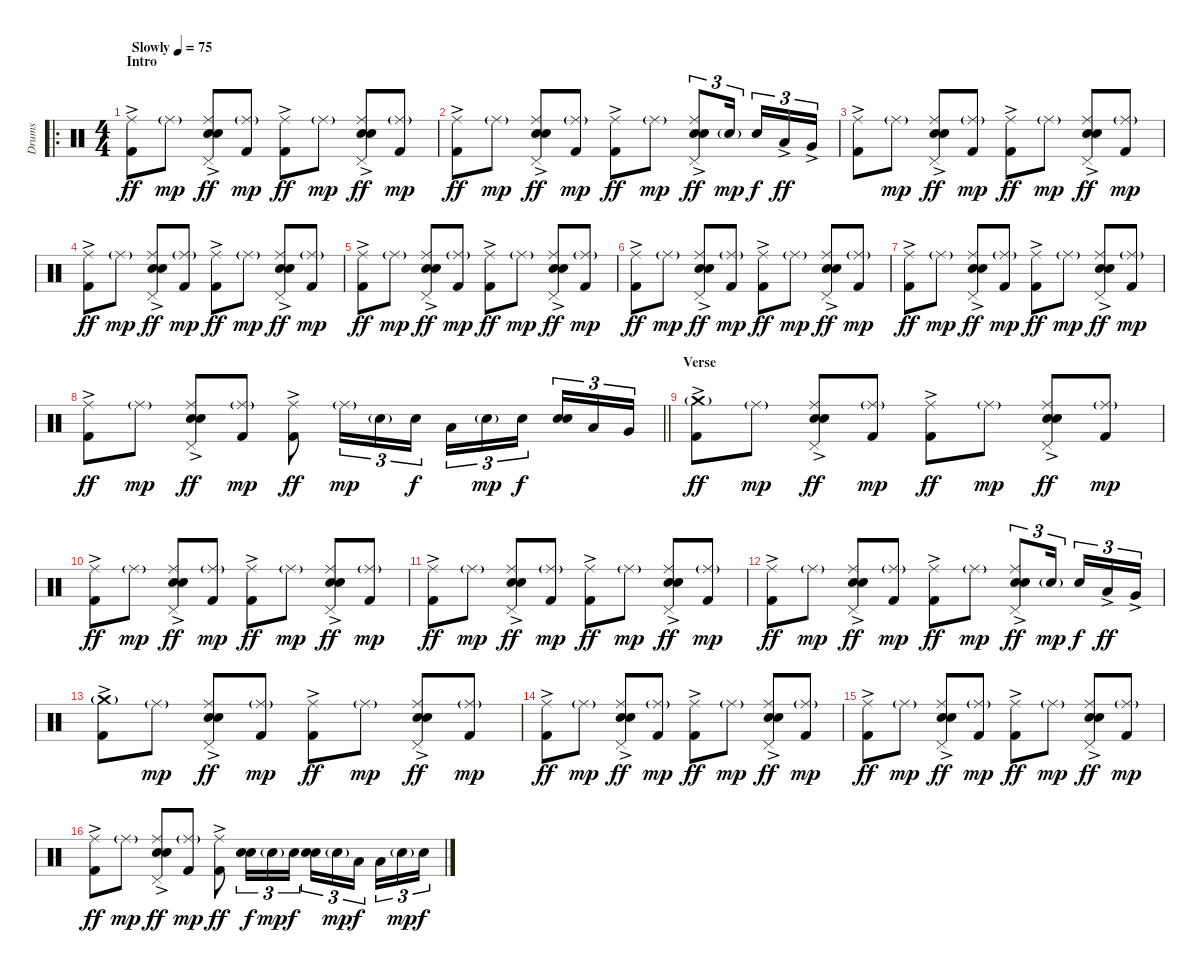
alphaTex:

\track ("Drums" "Drums") {instrument percussion}
\staff {score}
\articulation defaults
\ro
\ts (4 4)
\section ("" "Intro")
\tempo (75 "Slowly")
\clef neutral
\ks c
("Ride (middle)" "Kick (hit) 2"{ac}).8{dy ff} "Ride (middle)"{g}.8{dy mp} ("Ride (middle)" "Electric Snare (hit)"{ac} "Snare (hit) 2" "Pedal Hi-Hat (hit)").8{dy ff} ("Ride (middle)"{g} "Kick (hit) 2").8{dy mp} ("Ride (middle)" "Kick (hit) 2"{ac}).8{dy ff} "Ride (middle)"{g}.8{dy mp} ("Ride (middle)" "Electric Snare (hit)"{ac} "Snare (hit) 2" "Pedal Hi-Hat (hit)").8{dy ff} ("Ride (middle)"{g} "Kick (hit) 2").8{dy mp} |
("Ride (middle)" "Kick (hit) 2"{ac}).8{dy ff} "Ride (middle)"{g}.8{dy mp} ("Ride (middle)" "Electric Snare (hit)"{ac} "Snare (hit) 2" "Pedal Hi-Hat (hit)").8{dy ff} ("Ride (middle)"{g} "Kick (hit) 2").8{dy mp} ("Ride (middle)" "Kick (hit) 2"{ac}).8{dy ff} "Ride (middle)"{g}.8{dy mp} ("Ride (middle)" "Electric Snare (hit)"{ac} "Snare (hit) 2" "Pedal Hi-Hat (hit)").8{tu (3 2) dy ff} "Snare (hit) 2"{g}.16{tu (3 2) dy mp beam splitsecondary} "Snare (hit) 2".16{tu (3 2) dy f} "Low Tom (hit)"{ac}.16{tu (3 2) dy ff} "Very Low Tom (hit)"{ac}.16{tu (3 2)} |
("Ride (middle)" "Kick (hit) 2"{ac}).8 "Ride (middle)"{g}.8{dy mp} ("Ride (middle)" "Electric Snare (hit)"{ac} "Snare (hit) 2" "Pedal Hi-Hat (hit)").8{dy ff} ("Ride (middle)"{g} "Kick (hit) 2").8{dy mp} ("Ride (middle)" "Kick (hit) 2"{ac}).8{dy ff} "Ride (middle)"{g}.8{dy mp} ("Ride (middle)" "Electric Snare (hit)"{ac} "Snare (hit) 2" "Pedal Hi-Hat (hit)").8{dy ff} ("Ride (middle)"{g} "Kick (hit) 2").8{dy mp} |
("Ride (middle)" "Kick (hit) 2"{ac}).8{dy ff} "Ride (middle)"{g}.8{dy mp} ("Ride (middle)" "Electric Snare (hit)"{ac} "Snare (hit) 2" "Pedal Hi-Hat (hit)").8{dy ff} ("Ride (middle)"{g} "Kick (hit) 2").8{dy mp} ("Ride (middle)" "Kick (hit) 2"{ac}).8{dy ff} "Ride (middle)"{g}.8{dy mp} ("Ride (middle)" "Electric Snare (hit)"{ac} "Snare (hit) 2" "Pedal Hi-Hat (hit)").8{dy ff} ("Ride (middle)"{g} "Kick (hit) 2").8{dy mp} |
("Ride (middle)" "Kick (hit) 2"{ac}).8{dy ff} "Ride (middle)"{g}.8{dy mp} ("Ride (middle)" "Electric Snare (hit)"{ac} "Snare (hit) 2" "Pedal Hi-Hat (hit)").8{dy ff} ("Ride (middle)"{g} "Kick (hit) 2").8{dy mp} ("Ride (middle)" "Kick (hit) 2"{ac}).8{dy ff} "Ride (middle)"{g}.8{dy mp} ("Ride (middle)" "Electric Snare (hit)"{ac} "Snare (hit) 2" "Pedal Hi-Hat (hit)").8{dy ff} ("Ride (middle)"{g} "Kick (hit) 2").8{dy mp} |
("Ride (middle)" "Kick (hit) 2"{ac}).8{dy ff} "Ride (middle)"{g}.8{dy mp} ("Ride (middle)" "Electric Snare (hit)"{ac} "Snare (hit) 2" "Pedal Hi-Hat (hit)").8{dy ff} ("Ride (middle)"{g} "Kick (hit) 2").8{dy mp} ("Ride (middle)" "Kick (hit) 2"{ac}).8{dy ff} "Ride (middle)"{g}.8{dy mp} ("Ride (middle)" "Electric Snare (hit)"{ac} "Snare (hit) 2" "Pedal Hi-Hat (hit)").8{dy ff} ("Ride (middle)"{g} "Kick (hit) 2").8{dy mp} |
("Ride (middle)" "Kick (hit) 2"{ac}).8{dy ff} "Ride (middle)"{g}.8{dy mp} ("Ride (middle)" "Electric Snare (hit)"{ac} "Snare (hit) 2" "Pedal Hi-Hat (hit)").8{dy ff} ("Ride (middle)"{g} "Kick (hit) 2").8{dy mp} ("Ride (middle)" "Kick (hit) 2"{ac}).8{dy ff} "Ride (middle)"{g}.8{dy mp} ("Ride (middle)" "Electric Snare (hit)"{ac} "Snare (hit) 2" "Pedal Hi-Hat (hit)").8{dy ff} ("Ride (middle)"{g} "Kick (hit) 2").8{dy mp} |
\barLineRight lightlight
("Ride (middle)" "Kick (hit) 2"{ac}).8{dy ff} "Ride (middle)"{g}.8{dy mp} ("Ride (middle)" "Electric Snare (hit)"{ac} "Snare (hit) 2" "Pedal Hi-Hat (hit)").8{dy ff} ("Ride (middle)"{g} "Kick (hit) 2").8{dy mp} ("Ride (middle)" "Kick (hit) 2"{ac}).8{dy ff} "Ride (middle)"{g}.16{tu (3 2) dy mp} "Snare (hit) 2"{g}.16{tu (3 2)} "Snare (hit) 2".16{tu (3 2) dy f} "Low Tom (hit)".16{tu (3 2)} "Snare (hit) 2"{g}.16{tu (3 2) dy mp} "Snare (hit) 2".16{tu (3 2) dy f beam splitsecondary} ("Electric Snare (hit)" "Snare (hit) 2").16{tu (3 2)} "Low Tom (hit)".16{tu (3 2)} "Very Low Tom (hit)".16{tu (3 2)} |
\section ("" "Verse")
("Crash medium (hit)"{g} "Kick (hit) 2"{ac}).8{dy ff} "Ride (middle)"{g}.8{dy mp} ("Ride (middle)" "Electric Snare (hit)"{ac} "Snare (hit) 2" "Pedal Hi-Hat (hit)").8{dy ff} ("Ride (middle)"{g} "Kick (hit) 2").8{dy mp} ("Ride (middle)" "Kick (hit) 2"{ac}).8{dy ff} "Ride (middle)"{g}.8{dy mp} ("Ride (middle)" "Electric Snare (hit)"{ac} "Snare (hit) 2" "Pedal Hi-Hat (hit)").8{dy ff} ("Ride (middle)"{g} "Kick (hit) 2").8{dy mp} |
("Ride (middle)" "Kick (hit) 2"{ac}).8{dy ff} "Ride (middle)"{g}.8{dy mp} ("Ride (middle)" "Electric Snare (hit)"{ac} "Snare (hit) 2" "Pedal Hi-Hat (hit)").8{dy ff} ("Ride (middle)"{g} "Kick (hit) 2").8{dy mp} ("Ride (middle)" "Kick (hit) 2"{ac}).8{dy ff} "Ride (middle)"{g}.8{dy mp} ("Ride (middle)" "Electric Snare (hit)"{ac} "Snare (hit) 2" "Pedal Hi-Hat (hit)").8{dy ff} ("Ride (middle)"{g} "Kick (hit) 2").8{dy mp} |
("Ride (middle)" "Kick (hit) 2"{ac}).8{dy ff} "Ride (middle)"{g}.8{dy mp} ("Ride (middle)" "Electric Snare (hit)"{ac} "Snare (hit) 2" "Pedal Hi-Hat (hit)").8{dy ff} ("Ride (middle)"{g} "Kick (hit) 2").8{dy mp} ("Ride (middle)" "Kick (hit) 2"{ac}).8{dy ff} "Ride (middle)"{g}.8{dy mp} ("Ride (middle)" "Electric Snare (hit)"{ac} "Snare (hit) 2" "Pedal Hi-Hat (hit)").8{dy ff} ("Ride (middle)"{g} "Kick (hit) 2").8{dy mp} |
("Ride (middle)" "Kick (hit) 2"{ac}).8{dy ff} "Ride (middle)"{g}.8{dy mp} ("Ride (middle)" "Electric Snare (hit)"{ac} "Snare (hit) 2" "Pedal Hi-Hat (hit)").8{dy ff} ("Ride (middle)"{g} "Kick (hit) 2").8{dy mp} ("Ride (middle)" "Kick (hit) 2"{ac}).8{dy ff} "Ride (middle)"{g}.8{dy mp} ("Ride (middle)" "Electric Snare (hit)"{ac} "Snare (hit) 2" "Pedal Hi-Hat (hit)").8{tu (3 2) dy ff} "Snare (hit) 2"{g}.16{tu (3 2) dy mp beam splitsecondary} "Snare (hit) 2".16{tu (3 2) dy f} "Low Tom (hit)"{ac}.16{tu (3 2) dy ff} "Very Low Tom (hit)"{ac}.16{tu (3 2)} |
("Crash medium (hit)"{g} "Kick (hit) 2"{ac}).8 "Ride (middle)"{g}.8{dy mp} ("Ride (middle)" "Electric Snare (hit)"{ac} "Snare (hit) 2" "Pedal Hi-Hat (hit)").8{dy ff} ("Ride (middle)"{g} "Kick (hit) 2").8{dy mp} ("Ride (middle)" "Kick (hit) 2"{ac}).8{dy ff} "Ride (middle)"{g}.8{dy mp} ("Ride (middle)" "Electric Snare (hit)"{ac} "Snare (hit) 2" "Pedal Hi-Hat (hit)").8{dy ff} ("Ride (middle)"{g} "Kick (hit) 2").8{dy mp} |
("Ride (middle)" "Kick (hit) 2"{ac}).8{dy ff} "Ride (middle)"{g}.8{dy mp} ("Ride (middle)" "Electric Snare (hit)"{ac} "Snare (hit) 2" "Pedal Hi-Hat (hit)").8{dy ff} ("Ride (middle)"{g} "Kick (hit) 2").8{dy mp} ("Ride (middle)" "Kick (hit) 2"{ac}).8{dy ff} "Ride (middle)"{g}.8{dy mp} ("Ride (middle)" "Electric Snare (hit)"{ac} "Snare (hit) 2" "Pedal Hi-Hat (hit)").8{dy ff} ("Ride (middle)"{g} "Kick (hit) 2").8{dy mp} |
("Ride (middle)" "Kick (hit) 2"{ac}).8{dy ff} "Ride (middle)"{g}.8{dy mp} ("Ride (middle)" "Electric Snare (hit)"{ac} "Snare (hit) 2" "Pedal Hi-Hat (hit)").8{dy ff} ("Ride (middle)"{g} "Kick (hit) 2").8{dy mp} ("Ride (middle)" "Kick (hit) 2"{ac}).8{dy ff} "Ride (middle)"{g}.8{dy mp} ("Ride (middle)" "Electric Snare (hit)"{ac} "Snare (hit) 2" "Pedal Hi-Hat (hit)").8{dy ff} ("Ride (middle)"{g} "Kick (hit) 2").8{dy mp} |
("Ride (middle)" "Kick (hit) 2"{ac}).8{dy ff} "Ride (middle)"{g}.8{dy mp} ("Ride (middle)" "Electric Snare (hit)"{ac} "Snare (hit) 2" "Pedal Hi-Hat (hit)").8{dy ff} ("Ride (middle)"{g} "Kick (hit) 2").8{dy mp} ("Ride (middle)" "Kick (hit) 2"{ac}).8{dy ff} ("Electric Snare (hit)" "Snare (hit) 2").16{tu (3 2) dy f} "Snare (hit) 2"{g}.16{tu (3 2) dy mp} "Snare (hit) 2".16{tu (3 2) dy f} ("Electric Snare (hit)" "Snare (hit) 2").16{tu (3 2)} "Snare (hit) 2"{g}.16{tu (3 2) dy mp} "Low Tom (hit)".16{tu (3 2) dy f beam splitsecondary} "Low Tom (hit)".16{tu (3 2)} "Snare (hit) 2"{g}.16{tu (3 2) dy mp} "Snare (hit) 2".16{tu (3 2) dy f}
